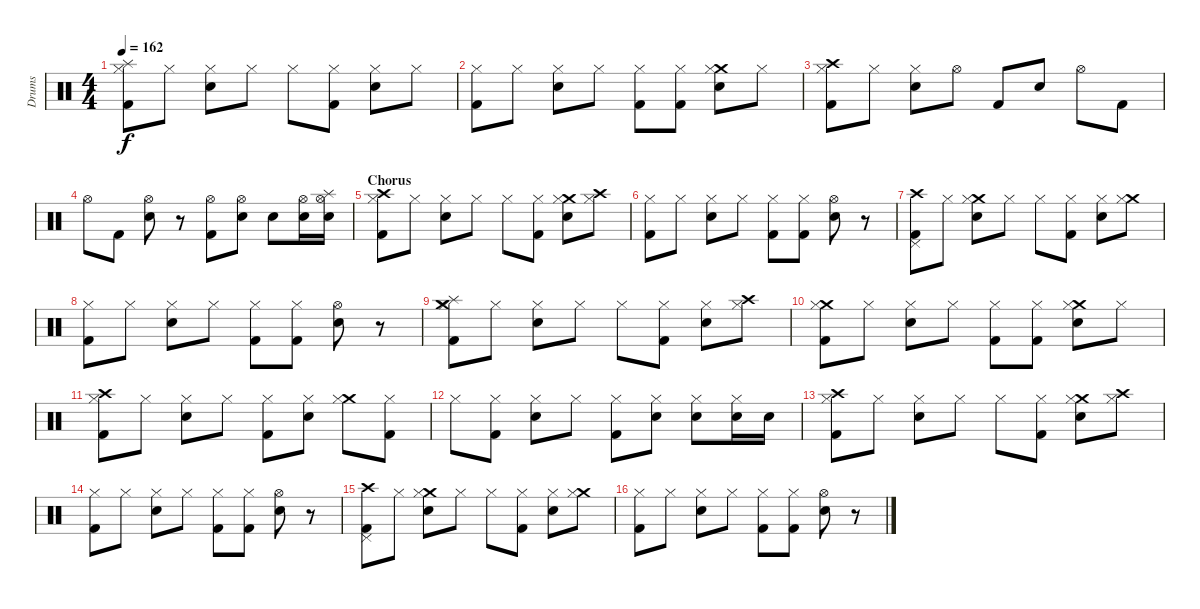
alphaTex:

\track ("Drums" "Drums") {instrument percussion}
\staff {score}
\articulation defaults
\ts (4 4)
\tempo 162
\clef neutral
\ks c
("Hi-Hat (closed)" "Splash (hit)" "Kick (hit) 2").8{dy f} "Hi-Hat (closed)".8 ("Hi-Hat (closed)" "Electric Snare (hit)").8 "Hi-Hat (closed)".8 "Hi-Hat (closed)".8 ("Hi-Hat (closed)" "Kick (hit) 2").8 ("Hi-Hat (closed)" "Electric Snare (hit)").8 "Hi-Hat (closed)".8 |
("Hi-Hat (closed)" "Kick (hit) 2").8 "Hi-Hat (closed)".8 ("Hi-Hat (closed)" "Electric Snare (hit)").8 "Hi-Hat (closed)".8 ("Hi-Hat (closed)" "Kick (hit) 2").8 ("Hi-Hat (closed)" "Kick (hit) 2").8 ("Crash medium (hit)" "Hi-Hat (closed)" "Electric Snare (hit)").8 "Hi-Hat (closed)".8 |
("Crash high (hit)" "Hi-Hat (closed)" "Kick (hit) 2").8 "Hi-Hat (closed)".8 ("Hi-Hat (closed)" "Electric Snare (hit)").8 "Hi-Hat (open)".8 "Kick (hit) 2".8 "Electric Snare (hit)".8 "Hi-Hat (open)".8 "Kick (hit) 2".8 |
"Hi-Hat (open)".8 "Kick (hit) 2".8 ("Hi-Hat (open)" "Electric Snare (hit)").8 r.8 ("Hi-Hat (open)" "Kick (hit) 2").8 ("Hi-Hat (open)" "Electric Snare (hit)").8 "Electric Snare (hit)".8 ("Hi-Hat (open)" "Electric Snare (hit)").16 ("Hi-Hat (open)" "Splash (hit)" "Electric Snare (hit)").16 |
\section ("" "Chorus")
("Crash high (hit)" "Hi-Hat (closed)" "Kick (hit) 2").8 "Hi-Hat (closed)".8 ("Hi-Hat (closed)" "Electric Snare (hit)").8 "Hi-Hat (closed)".8 "Hi-Hat (closed)".8 ("Hi-Hat (closed)" "Kick (hit) 2").8 ("Crash medium (hit)" "Hi-Hat (closed)" "Electric Snare (hit)").8 ("Crash high (hit)" "Hi-Hat (closed)").8 |
("Hi-Hat (closed)" "Kick (hit) 2").8 "Hi-Hat (closed)".8 ("Hi-Hat (closed)" "Electric Snare (hit)").8 "Hi-Hat (closed)".8 ("Hi-Hat (closed)" "Kick (hit) 2").8 ("Hi-Hat (closed)" "Kick (hit) 2").8 ("Hi-Hat (open)" "Electric Snare (hit)").8 r.8 |
("Crash high (hit)" "Pedal Hi-Hat (hit)" "Kick (hit) 2").8 "Hi-Hat (closed)".8 ("Crash medium (hit)" "Hi-Hat (closed)" "Electric Snare (hit)").8 "Hi-Hat (closed)".8 "Hi-Hat (closed)".8 ("Hi-Hat (closed)" "Kick (hit) 2").8 ("Hi-Hat (closed)" "Electric Snare (hit)").8 ("Crash medium (hit)" "Hi-Hat (closed)").8 |
("Hi-Hat (closed)" "Kick (hit) 2").8 "Hi-Hat (closed)".8 ("Hi-Hat (closed)" "Electric Snare (hit)").8 "Hi-Hat (closed)".8 ("Hi-Hat (closed)" "Kick (hit) 2").8 ("Hi-Hat (closed)" "Kick (hit) 2").8 ("Hi-Hat (open)" "Electric Snare (hit)").8 r.8 |
("Crash medium (hit)" "Hi-Hat (closed)" "Splash (hit)" "Kick (hit) 2").8 "Hi-Hat (closed)".8 ("Hi-Hat (closed)" "Electric Snare (hit)").8 "Hi-Hat (closed)".8 "Hi-Hat (closed)".8 ("Hi-Hat (closed)" "Kick (hit) 2").8 ("Hi-Hat (closed)" "Electric Snare (hit)").8 ("Crash high (hit)" "Hi-Hat (closed)").8 |
("Crash medium (hit)" "Hi-Hat (closed)" "Kick (hit) 2").8 "Hi-Hat (closed)".8 ("Hi-Hat (closed)" "Electric Snare (hit)").8 "Hi-Hat (closed)".8 ("Hi-Hat (closed)" "Kick (hit) 2").8 ("Hi-Hat (closed)" "Kick (hit) 2").8 ("Crash medium (hit)" "Hi-Hat (closed)" "Electric Snare (hit)").8 "Hi-Hat (closed)".8 |
("Crash high (hit)" "Hi-Hat (closed)" "Kick (hit) 2").8 "Hi-Hat (closed)".8 ("Hi-Hat (closed)" "Electric Snare (hit)").8 "Hi-Hat (closed)".8 ("Hi-Hat (closed)" "Kick (hit) 2").8 ("Hi-Hat (closed)" "Electric Snare (hit)").8 ("Crash medium (hit)" "Hi-Hat (closed)").8 ("Hi-Hat (closed)" "Kick (hit) 2").8 |
"Hi-Hat (closed)".8 ("Hi-Hat (closed)" "Kick (hit) 2").8 ("Hi-Hat (closed)" "Electric Snare (hit)").8 "Hi-Hat (closed)".8 ("Hi-Hat (closed)" "Kick (hit) 2").8 ("Hi-Hat (closed)" "Electric Snare (hit)").8 ("Hi-Hat (closed)" "Electric Snare (hit)").8 ("Hi-Hat (closed)" "Electric Snare (hit)").16 "Electric Snare (hit)".16 |
("Crash high (hit)" "Hi-Hat (closed)" "Kick (hit) 2").8 "Hi-Hat (closed)".8 ("Hi-Hat (closed)" "Electric Snare (hit)").8 "Hi-Hat (closed)".8 "Hi-Hat (closed)".8 ("Hi-Hat (closed)" "Kick (hit) 2").8 ("Crash medium (hit)" "Hi-Hat (closed)" "Electric Snare (hit)").8 ("Crash high (hit)" "Hi-Hat (closed)").8 |
("Hi-Hat (closed)" "Kick (hit) 2").8 "Hi-Hat (closed)".8 ("Hi-Hat (closed)" "Electric Snare (hit)").8 "Hi-Hat (closed)".8 ("Hi-Hat (closed)" "Kick (hit) 2").8 ("Hi-Hat (closed)" "Kick (hit) 2").8 ("Hi-Hat (open)" "Electric Snare (hit)").8 r.8 |
("Crash high (hit)" "Pedal Hi-Hat (hit)" "Kick (hit) 2").8 "Hi-Hat (closed)".8 ("Crash medium (hit)" "Hi-Hat (closed)" "Electric Snare (hit)").8 "Hi-Hat (closed)".8 "Hi-Hat (closed)".8 ("Hi-Hat (closed)" "Kick (hit) 2").8 ("Hi-Hat (closed)" "Electric Snare (hit)").8 ("Crash medium (hit)" "Hi-Hat (closed)").8 |
("Hi-Hat (closed)" "Kick (hit) 2").8 "Hi-Hat (closed)".8 ("Hi-Hat (closed)" "Electric Snare (hit)").8 "Hi-Hat (closed)".8 ("Hi-Hat (closed)" "Kick (hit) 2").8 ("Hi-Hat (closed)" "Kick (hit) 2").8 ("Hi-Hat (open)" "Electric Snare (hit)").8 r.8
